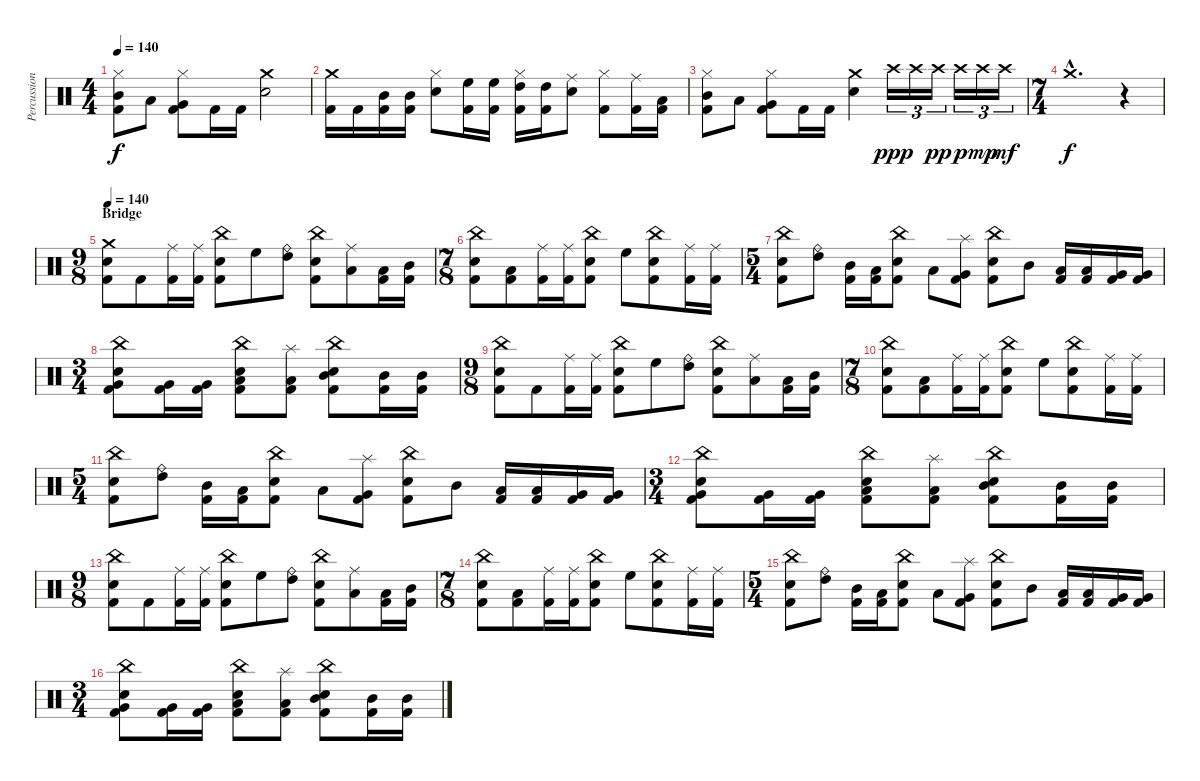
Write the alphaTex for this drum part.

\track ("Percussion" "Percussion") {instrument percussion}
\staff {score}
\articulation defaults
\ts (4 4)
\tempo 140
\clef neutral
\ks c
("Hi-Hat (closed)" "Mid Tom (hit)" "Kick (hit) 2").8{dy f} "Low Tom (hit)".8 ("Hi-Hat (closed)" "Very Low Tom (hit)" "Kick (hit) 2").8 "Kick (hit) 2".16 "Kick (hit) 2".16 ("Crash medium (hit)" "Electric Snare (hit)").2 |
("Crash medium (hit)" "Kick (hit) 2").16 "Kick (hit) 2".16 ("Mid Tom (hit)" "Kick (hit) 2").16 ("Mid Tom (hit)" "Kick (hit) 2").16 ("Hi-Hat (closed)" "Electric Snare (hit)").8 ("High Floor Tom (hit)" "Kick (hit) 2").16 ("High Floor Tom (hit)" "Kick (hit) 2").16 ("Hi-Hat (closed)" "High Tom (hit)" "Kick (hit) 2").16 ("High Tom (hit)" "Kick (hit) 2").16 ("Ride (middle)" "Electric Snare (hit)").8 ("Hi-Hat (closed)" "Kick (hit) 2").8 ("Ride (middle)" "Kick (hit) 2").16 ("Low Tom (hit)" "Kick (hit) 2").16 |
("Hi-Hat (closed)" "Mid Tom (hit)" "Kick (hit) 2").8 "Low Tom (hit)".8 ("Hi-Hat (closed)" "Very Low Tom (hit)" "Kick (hit) 2").8 "Kick (hit) 2".16 "Kick (hit) 2".16 ("Crash medium (hit)" "Electric Snare (hit)").4 "Crash high (hit)".16{tu (3 2) dy ppp} "Crash high (hit)".16{tu (3 2)} "Crash high (hit)".16{tu (3 2) dy pp} "Crash high (hit)".16{tu (3 2) dy p} "Crash high (hit)".16{tu (3 2) dy mp} "Crash high (hit)".16{tu (3 2) dy mf} |
\ts (7 4)
"Crash medium (hit)"{hac}.1{d dy f} r.4 |
\ts (9 8)
\section ("" "Bridge")
\tempo 140
("Crash medium (hit)" "Electric Snare (hit)" "Kick (hit) 2").8 "Kick (hit) 2".8 ("Ride (middle)" "Kick (hit) 2").16 ("Ride (middle)" "Kick (hit) 2").16 ("China (hit)" "Electric Snare (hit)" "Kick (hit) 2").8 "High Floor Tom (hit)".8 ("Ride (bell)" "High Tom (hit)").8 ("China (hit)" "Electric Snare (hit)" "Kick (hit) 2").8 ("Ride (middle)" "Low Tom (hit)").8 ("Low Tom (hit)" "Kick (hit) 2").16 ("Mid Tom (hit)" "Kick (hit) 2").16 |
\ts (7 8)
("China (hit)" "Electric Snare (hit)" "Kick (hit) 2").8 ("Low Tom (hit)" "Kick (hit) 2").8 ("Ride (middle)" "Kick (hit) 2").16 ("Ride (middle)" "Kick (hit) 2").16 ("China (hit)" "Electric Snare (hit)" "Kick (hit) 2").8 "High Floor Tom (hit)".8 ("China (hit)" "Electric Snare (hit)" "Kick (hit) 2").8 ("Ride (middle)" "Kick (hit) 2").16 ("Ride (middle)" "Kick (hit) 2").16 |
\ts (5 4)
("China (hit)" "Electric Snare (hit)" "Kick (hit) 2").8 ("Ride (bell)" "High Tom (hit)").8 ("Mid Tom (hit)" "Kick (hit) 2").16 ("Low Tom (hit)" "Kick (hit) 2").16 ("China (hit)" "Electric Snare (hit)" "Kick (hit) 2").8 "Low Tom (hit)".8 ("Splash (hit)" "Very Low Tom (hit)" "Kick (hit) 2").8 ("China (hit)" "Electric Snare (hit)" "Kick (hit) 2").8 "Mid Tom (hit)".8 ("Low Tom (hit)" "Kick (hit) 2").16 ("Low Tom (hit)" "Kick (hit) 2").16 ("Very Low Tom (hit)" "Kick (hit) 2").16 ("Very Low Tom (hit)" "Kick (hit) 2").16 |
\ts (3 4)
("China (hit)" "Very Low Tom (hit)" "Electric Snare (hit)" "Kick (hit) 2").8 ("Very Low Tom (hit)" "Kick (hit) 2").16 ("Very Low Tom (hit)" "Kick (hit) 2").16 ("China (hit)" "Low Tom (hit)" "Electric Snare (hit)" "Kick (hit) 2").8 ("Splash (hit)" "Low Tom (hit)" "Kick (hit) 2").8 ("China (hit)" "Mid Tom (hit)" "Electric Snare (hit)" "Kick (hit) 2").8 ("Mid Tom (hit)" "Kick (hit) 2").16 ("Mid Tom (hit)" "Kick (hit) 2").16 |
\ts (9 8)
("China (hit)" "Electric Snare (hit)" "Kick (hit) 2").8 "Kick (hit) 2".8 ("Ride (middle)" "Kick (hit) 2").16 ("Ride (middle)" "Kick (hit) 2").16 ("China (hit)" "Electric Snare (hit)" "Kick (hit) 2").8 "High Floor Tom (hit)".8 ("Ride (bell)" "High Tom (hit)").8 ("China (hit)" "Electric Snare (hit)" "Kick (hit) 2").8 ("Ride (middle)" "Low Tom (hit)").8 ("Low Tom (hit)" "Kick (hit) 2").16 ("Mid Tom (hit)" "Kick (hit) 2").16 |
\ts (7 8)
("China (hit)" "Electric Snare (hit)" "Kick (hit) 2").8 ("Low Tom (hit)" "Kick (hit) 2").8 ("Ride (middle)" "Kick (hit) 2").16 ("Ride (middle)" "Kick (hit) 2").16 ("China (hit)" "Electric Snare (hit)" "Kick (hit) 2").8 "High Floor Tom (hit)".8 ("China (hit)" "Electric Snare (hit)" "Kick (hit) 2").8 ("Ride (middle)" "Kick (hit) 2").16 ("Ride (middle)" "Kick (hit) 2").16 |
\ts (5 4)
("China (hit)" "Electric Snare (hit)" "Kick (hit) 2").8 ("Ride (bell)" "High Tom (hit)").8 ("Mid Tom (hit)" "Kick (hit) 2").16 ("Low Tom (hit)" "Kick (hit) 2").16 ("China (hit)" "Electric Snare (hit)" "Kick (hit) 2").8 "Low Tom (hit)".8 ("Splash (hit)" "Very Low Tom (hit)" "Kick (hit) 2").8 ("China (hit)" "Electric Snare (hit)" "Kick (hit) 2").8 "Mid Tom (hit)".8 ("Low Tom (hit)" "Kick (hit) 2").16 ("Low Tom (hit)" "Kick (hit) 2").16 ("Very Low Tom (hit)" "Kick (hit) 2").16 ("Very Low Tom (hit)" "Kick (hit) 2").16 |
\ts (3 4)
("China (hit)" "Very Low Tom (hit)" "Electric Snare (hit)" "Kick (hit) 2").8 ("Very Low Tom (hit)" "Kick (hit) 2").16 ("Very Low Tom (hit)" "Kick (hit) 2").16 ("China (hit)" "Low Tom (hit)" "Electric Snare (hit)" "Kick (hit) 2").8 ("Splash (hit)" "Low Tom (hit)" "Kick (hit) 2").8 ("China (hit)" "Mid Tom (hit)" "Electric Snare (hit)" "Kick (hit) 2").8 ("Mid Tom (hit)" "Kick (hit) 2").16 ("Mid Tom (hit)" "Kick (hit) 2").16 |
\ts (9 8)
("China (hit)" "Electric Snare (hit)" "Kick (hit) 2").8 "Kick (hit) 2".8 ("Ride (middle)" "Kick (hit) 2").16 ("Ride (middle)" "Kick (hit) 2").16 ("China (hit)" "Electric Snare (hit)" "Kick (hit) 2").8 "High Floor Tom (hit)".8 ("Ride (bell)" "High Tom (hit)").8 ("China (hit)" "Electric Snare (hit)" "Kick (hit) 2").8 ("Ride (middle)" "Low Tom (hit)").8 ("Low Tom (hit)" "Kick (hit) 2").16 ("Mid Tom (hit)" "Kick (hit) 2").16 |
\ts (7 8)
("China (hit)" "Electric Snare (hit)" "Kick (hit) 2").8 ("Low Tom (hit)" "Kick (hit) 2").8 ("Ride (middle)" "Kick (hit) 2").16 ("Ride (middle)" "Kick (hit) 2").16 ("China (hit)" "Electric Snare (hit)" "Kick (hit) 2").8 "High Floor Tom (hit)".8 ("China (hit)" "Electric Snare (hit)" "Kick (hit) 2").8 ("Ride (middle)" "Kick (hit) 2").16 ("Ride (middle)" "Kick (hit) 2").16 |
\ts (5 4)
("China (hit)" "Electric Snare (hit)" "Kick (hit) 2").8 ("Ride (bell)" "High Tom (hit)").8 ("Mid Tom (hit)" "Kick (hit) 2").16 ("Low Tom (hit)" "Kick (hit) 2").16 ("China (hit)" "Electric Snare (hit)" "Kick (hit) 2").8 "Low Tom (hit)".8 ("Splash (hit)" "Very Low Tom (hit)" "Kick (hit) 2").8 ("China (hit)" "Electric Snare (hit)" "Kick (hit) 2").8 "Mid Tom (hit)".8 ("Low Tom (hit)" "Kick (hit) 2").16 ("Low Tom (hit)" "Kick (hit) 2").16 ("Very Low Tom (hit)" "Kick (hit) 2").16 ("Very Low Tom (hit)" "Kick (hit) 2").16 |
\ts (3 4)
("China (hit)" "Very Low Tom (hit)" "Electric Snare (hit)" "Kick (hit) 2").8 ("Very Low Tom (hit)" "Kick (hit) 2").16 ("Very Low Tom (hit)" "Kick (hit) 2").16 ("China (hit)" "Low Tom (hit)" "Electric Snare (hit)" "Kick (hit) 2").8 ("Splash (hit)" "Low Tom (hit)" "Kick (hit) 2").8 ("China (hit)" "Mid Tom (hit)" "Electric Snare (hit)" "Kick (hit) 2").8 ("Mid Tom (hit)" "Kick (hit) 2").16 ("Mid Tom (hit)" "Kick (hit) 2").16
